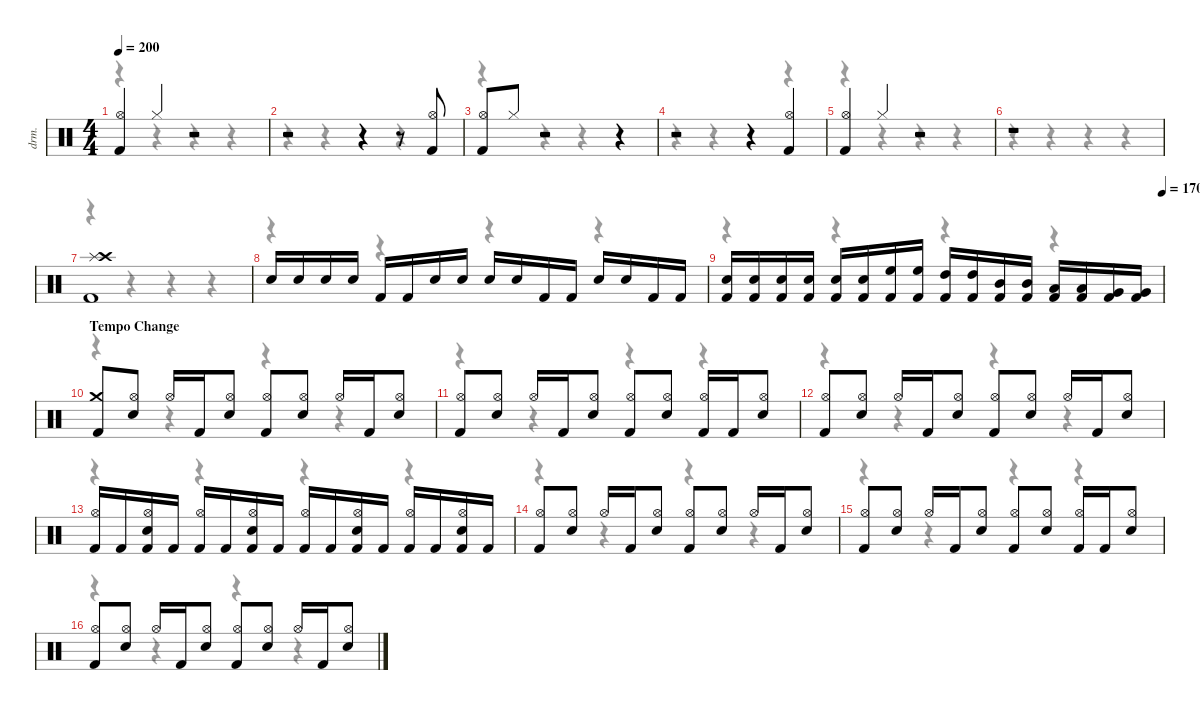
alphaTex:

\hideDynamics
\bracketExtendMode nobrackets
\otherSystemsTrackNameOrientation horizontal
\track ("Drums" "drm.") {instrument percussion}
\staff {score}
\articulation defaults
\voice
\ts (4 4)
\section ("" "")
\scale
0.988084
\tempo 200
\accidentals auto
\clef neutral
\ottava regular
\simile none
\ks c
("Kick (hit) 2" "Hi-Hat (open)").4{dy f} "Hi-Hat (closed)".4{dy ppp} r.2 |
\scale
0.988084 r.2 r.4 r.8 ("Kick (hit) 2" "Hi-Hat (open)").8{dy f} |
\scale
1.04673 ("Kick (hit) 2" "Hi-Hat (open)").8 "Hi-Hat (closed)".8{dy ppp} r.2 r.4 |
\scale
0.977884 r.2 r.4 ("Kick (hit) 2" "Hi-Hat (open)").4{dy f} |
\scale
0.987692 ("Kick (hit) 2" "Hi-Hat (open)").4 "Hi-Hat (closed)".4{dy ppp} r.2 |
\scale
0.987692 r.1 |
\scale
1.05943 ("Kick (hit) 2" "Splash (hit)" "Crash high (hit)").1{dy f} |
\scale
0.985632 "Snare (hit) 2".16 "Snare (hit) 2".16 "Snare (hit) 2".16 "Snare (hit) 2".16 "Kick (hit) 2".16 "Kick (hit) 2".16 "Snare (hit) 2".16 "Snare (hit) 2".16 "Snare (hit) 2".16 "Snare (hit) 2".16 "Kick (hit) 2".16 "Kick (hit) 2".16 "Snare (hit) 2".16 "Snare (hit) 2".16 "Kick (hit) 2".16 "Kick (hit) 2".16 |
\scale
0.99593
\tempo (170 1)
("Kick (hit) 2" "Snare (hit) 2").16 ("Kick (hit) 2" "Snare (hit) 2").16 ("Kick (hit) 2" "Snare (hit) 2").16 ("Kick (hit) 2" "Snare (hit) 2").16 ("Kick (hit) 2" "Snare (hit) 2").16 ("Kick (hit) 2" "Snare (hit) 2").16 ("Kick (hit) 2" "High Floor Tom (hit)").16 ("Kick (hit) 2" "High Floor Tom (hit)").16 ("Kick (hit) 2" "High Tom (hit)").16 ("Kick (hit) 2" "High Tom (hit)").16 ("Kick (hit) 2" "Mid Tom (hit)").16 ("Kick (hit) 2" "Mid Tom (hit)").16 ("Kick (hit) 2" "Low Tom (hit)").16 ("Kick (hit) 2" "Low Tom (hit)").16 ("Kick (hit) 2" "Very Low Tom (hit)").16 ("Kick (hit) 2" "Very Low Tom (hit)").16 |
\section ("" "Tempo Change")
\scale
0.973373 ("Kick (hit) 2" "Crash medium (hit)").8 ("Snare (hit) 2" "Hi-Hat (open)").8 "Hi-Hat (open)".16 "Kick (hit) 2".16 ("Snare (hit) 2" "Hi-Hat (open)").8 ("Kick (hit) 2" "Hi-Hat (open)").8 ("Snare (hit) 2" "Hi-Hat (open)").8 "Hi-Hat (open)".16 "Kick (hit) 2".16 ("Snare (hit) 2" "Hi-Hat (open)").8 |
\scale
0.985632 ("Kick (hit) 2" "Hi-Hat (open)").8 ("Snare (hit) 2" "Hi-Hat (open)").8 "Hi-Hat (open)".16 "Kick (hit) 2".16 ("Snare (hit) 2" "Hi-Hat (open)").8 ("Kick (hit) 2" "Hi-Hat (open)").8 ("Snare (hit) 2" "Hi-Hat (open)").8 ("Kick (hit) 2" "Hi-Hat (open)").16 "Kick (hit) 2".16 ("Snare (hit) 2" "Hi-Hat (open)").8 |
\scale
1.0664 ("Kick (hit) 2" "Hi-Hat (open)").8 ("Snare (hit) 2" "Hi-Hat (open)").8 "Hi-Hat (open)".16 "Kick (hit) 2".16 ("Snare (hit) 2" "Hi-Hat (open)").8 ("Kick (hit) 2" "Hi-Hat (open)").8 ("Snare (hit) 2" "Hi-Hat (open)").8 "Hi-Hat (open)".16 "Kick (hit) 2".16 ("Snare (hit) 2" "Hi-Hat (open)").8 |
\scale
0.980336 ("Kick (hit) 2" "Hi-Hat (open)").16 "Kick (hit) 2".16 ("Kick (hit) 2" "Snare (hit) 2" "Hi-Hat (open)").16 "Kick (hit) 2".16 ("Kick (hit) 2" "Hi-Hat (open)").16 "Kick (hit) 2".16 ("Kick (hit) 2" "Snare (hit) 2" "Hi-Hat (open)").16 "Kick (hit) 2".16 ("Kick (hit) 2" "Hi-Hat (open)").16 "Kick (hit) 2".16 ("Kick (hit) 2" "Snare (hit) 2" "Hi-Hat (open)").16 "Kick (hit) 2".16 ("Kick (hit) 2" "Hi-Hat (open)").16 "Kick (hit) 2".16 ("Kick (hit) 2" "Snare (hit) 2" "Hi-Hat (open)").16 "Kick (hit) 2".16 |
\scale
0.980336 ("Kick (hit) 2" "Hi-Hat (open)").8 ("Snare (hit) 2" "Hi-Hat (open)").8 "Hi-Hat (open)".16 "Kick (hit) 2".16 ("Snare (hit) 2" "Hi-Hat (open)").8 ("Kick (hit) 2" "Hi-Hat (open)").8 ("Snare (hit) 2" "Hi-Hat (open)").8 "Hi-Hat (open)".16 "Kick (hit) 2".16 ("Snare (hit) 2" "Hi-Hat (open)").8 |
\scale
0.992595 ("Kick (hit) 2" "Hi-Hat (open)").8 ("Snare (hit) 2" "Hi-Hat (open)").8 "Hi-Hat (open)".16 "Kick (hit) 2".16 ("Snare (hit) 2" "Hi-Hat (open)").8 ("Kick (hit) 2" "Hi-Hat (open)").8 ("Snare (hit) 2" "Hi-Hat (open)").8 ("Kick (hit) 2" "Hi-Hat (open)").16 "Kick (hit) 2".16 ("Snare (hit) 2" "Hi-Hat (open)").8 |
\scale
0.980336 ("Kick (hit) 2" "Hi-Hat (open)").8 ("Snare (hit) 2" "Hi-Hat (open)").8 "Hi-Hat (open)".16 "Kick (hit) 2".16 ("Snare (hit) 2" "Hi-Hat (open)").8 ("Kick (hit) 2" "Hi-Hat (open)").8 ("Snare (hit) 2" "Hi-Hat (open)").8 "Hi-Hat (open)".16 "Kick (hit) 2".16 ("Snare (hit) 2" "Hi-Hat (open)").8
\voice
\clef neutral
\ottava regular
\simile none
\ks c
r.4{dy mf} r.4 r.4 r.4 |
r.4 r.4 r.4 r.4 |
r.4 r.4 r.4 r.4 |
r.4 r.4 r.4 r.4 |
r.4 r.4 r.4 r.4 |
r.4 r.4 r.4 r.4 |
r.4 r.4 r.4 r.4 |
r.4 r.4 r.4 r.4 |
r.4 r.4 r.4 r.4 |
r.4 r.4 r.4 r.4 |
r.4 r.4 r.4 r.4 |
r.4 r.4 r.4 r.4 |
r.4 r.4 r.4 r.4 |
r.4 r.4 r.4 r.4 |
r.4 r.4 r.4 r.4 |
r.4 r.4 r.4 r.4
